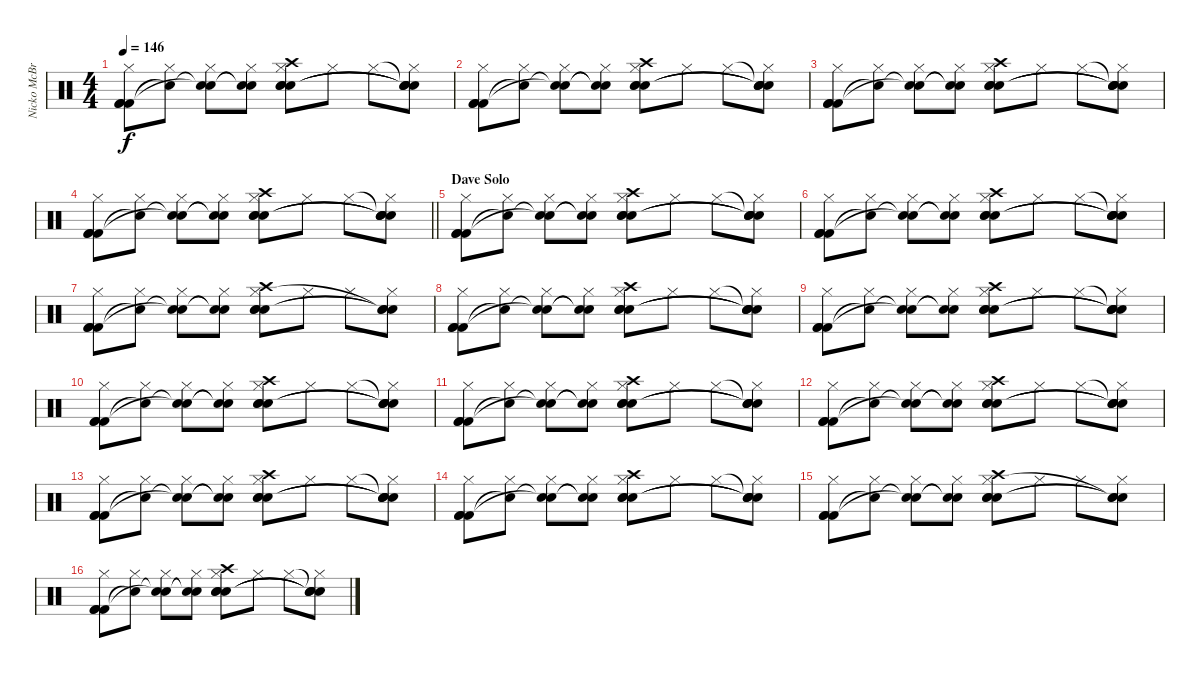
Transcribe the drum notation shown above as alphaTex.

\track ("Nicko McBrain" "Nicko McBr") {instrument percussion}
\staff {score}
\articulation defaults
\ts (4 4)
\tempo 146
\clef neutral
\ks c
("Hi-Hat (closed)" "Kick (hit) 2" "Kick (hit) 2" "Kick (hit) 2").8{dy f} ("Hi-Hat (closed)" "Snare (hit)"{t}).8 ("Hi-Hat (closed)" "Snare (hit)"{t} "Snare (hit)"{t}).8 ("Hi-Hat (closed)" "Snare (hit)"{t} "Snare (hit)"{t}).8 ("Crash high (hit)" "Hi-Hat (closed)" "Snare (hit) 2" "Snare (hit) 2" "Snare (hit) 2").8 "Hi-Hat (closed)".8 "Hi-Hat (closed)".8 ("Snare (hit)"{t} "Hi-Hat (closed)" "Snare (hit)"{t} "Snare (hit)"{t} "Snare (hit)"{t}).8 |
("Hi-Hat (closed)" "Kick (hit) 2" "Kick (hit) 2" "Kick (hit) 2").8 ("Hi-Hat (closed)" "Snare (hit)"{t}).8 ("Hi-Hat (closed)" "Snare (hit)"{t} "Snare (hit)"{t}).8 ("Hi-Hat (closed)" "Snare (hit)"{t} "Snare (hit)"{t}).8 ("Crash high (hit)" "Hi-Hat (closed)" "Snare (hit) 2" "Snare (hit) 2" "Snare (hit) 2").8 "Hi-Hat (closed)".8 "Hi-Hat (closed)".8 ("Snare (hit)"{t} "Hi-Hat (closed)" "Snare (hit)"{t} "Snare (hit)"{t} "Snare (hit)"{t}).8 |
("Hi-Hat (closed)" "Kick (hit) 2" "Kick (hit) 2" "Kick (hit) 2").8 ("Hi-Hat (closed)" "Snare (hit)"{t}).8 ("Hi-Hat (closed)" "Snare (hit)"{t} "Snare (hit)"{t}).8 ("Hi-Hat (closed)" "Snare (hit)"{t} "Snare (hit)"{t}).8 ("Crash high (hit)" "Hi-Hat (closed)" "Snare (hit) 2" "Snare (hit) 2" "Snare (hit) 2").8 "Hi-Hat (closed)".8 "Hi-Hat (closed)".8 ("Snare (hit)"{t} "Hi-Hat (closed)" "Snare (hit)"{t} "Snare (hit)"{t} "Snare (hit)"{t}).8 |
\barLineRight lightlight
("Hi-Hat (closed)" "Kick (hit) 2" "Kick (hit) 2" "Kick (hit) 2").8 ("Hi-Hat (closed)" "Snare (hit)"{t}).8 ("Hi-Hat (closed)" "Snare (hit)"{t} "Snare (hit)"{t}).8 ("Hi-Hat (closed)" "Snare (hit)"{t} "Snare (hit)"{t}).8 ("Crash high (hit)" "Hi-Hat (closed)" "Snare (hit) 2" "Snare (hit) 2" "Snare (hit) 2").8 "Hi-Hat (closed)".8 "Hi-Hat (closed)".8 ("Snare (hit)"{t} "Hi-Hat (closed)" "Snare (hit)"{t} "Snare (hit)"{t} "Snare (hit)"{t}).8 |
\section ("" "Dave Solo")
("Hi-Hat (closed)" "Kick (hit) 2" "Kick (hit) 2" "Kick (hit) 2").8 ("Hi-Hat (closed)" "Snare (hit)"{t}).8 ("Hi-Hat (closed)" "Snare (hit)"{t} "Snare (hit)"{t}).8 ("Hi-Hat (closed)" "Snare (hit)"{t} "Snare (hit)"{t}).8 ("Crash high (hit)" "Hi-Hat (closed)" "Snare (hit) 2" "Snare (hit) 2" "Snare (hit) 2").8 "Hi-Hat (closed)".8 "Hi-Hat (closed)".8 ("Snare (hit)"{t} "Hi-Hat (closed)" "Snare (hit)"{t} "Snare (hit)"{t} "Snare (hit)"{t}).8 |
("Hi-Hat (closed)" "Kick (hit) 2" "Kick (hit) 2" "Kick (hit) 2").8 ("Hi-Hat (closed)" "Snare (hit)"{t}).8 ("Hi-Hat (closed)" "Snare (hit)"{t} "Snare (hit)"{t}).8 ("Hi-Hat (closed)" "Snare (hit)"{t} "Snare (hit)"{t}).8 ("Crash high (hit)" "Hi-Hat (closed)" "Snare (hit) 2" "Snare (hit) 2" "Snare (hit) 2").8 "Hi-Hat (closed)".8 "Hi-Hat (closed)".8 ("Snare (hit)"{t} "Hi-Hat (closed)" "Snare (hit)"{t} "Snare (hit)"{t} "Snare (hit)"{t}).8 |
("Hi-Hat (closed)" "Kick (hit) 2" "Kick (hit) 2" "Kick (hit) 2").8 ("Hi-Hat (closed)" "Snare (hit)"{t}).8 ("Hi-Hat (closed)" "Snare (hit)"{t} "Snare (hit)"{t}).8 ("Hi-Hat (closed)" "Snare (hit)"{t} "Snare (hit)"{t}).8 ("Crash high (hit)" "Hi-Hat (closed)" "Snare (hit) 2" "Snare (hit) 2" "Snare (hit) 2").8 "Hi-Hat (closed)".8 "Hi-Hat (closed)".8 ("Hi-Hat (closed)" "Snare (hit)"{t} "Snare (hit)"{t} "Snare (hit)"{t}).8 |
("Hi-Hat (closed)" "Kick (hit) 2" "Kick (hit) 2" "Kick (hit) 2").8 ("Hi-Hat (closed)" "Snare (hit)"{t}).8 ("Hi-Hat (closed)" "Snare (hit)"{t} "Snare (hit)"{t}).8 ("Hi-Hat (closed)" "Snare (hit)"{t} "Snare (hit)"{t}).8 ("Crash high (hit)" "Hi-Hat (closed)" "Snare (hit) 2" "Snare (hit) 2" "Snare (hit) 2").8 "Hi-Hat (closed)".8 "Hi-Hat (closed)".8 ("Snare (hit)"{t} "Hi-Hat (closed)" "Snare (hit)"{t} "Snare (hit)"{t} "Snare (hit)"{t}).8 |
("Hi-Hat (closed)" "Kick (hit) 2" "Kick (hit) 2" "Kick (hit) 2").8 ("Hi-Hat (closed)" "Snare (hit)"{t}).8 ("Hi-Hat (closed)" "Snare (hit)"{t} "Snare (hit)"{t}).8 ("Hi-Hat (closed)" "Snare (hit)"{t} "Snare (hit)"{t}).8 ("Crash high (hit)" "Hi-Hat (closed)" "Snare (hit) 2" "Snare (hit) 2" "Snare (hit) 2").8 "Hi-Hat (closed)".8 "Hi-Hat (closed)".8 ("Snare (hit)"{t} "Hi-Hat (closed)" "Snare (hit)"{t} "Snare (hit)"{t} "Snare (hit)"{t}).8 |
("Hi-Hat (closed)" "Kick (hit) 2" "Kick (hit) 2" "Kick (hit) 2").8 ("Hi-Hat (closed)" "Snare (hit)"{t}).8 ("Hi-Hat (closed)" "Snare (hit)"{t} "Snare (hit)"{t}).8 ("Hi-Hat (closed)" "Snare (hit)"{t} "Snare (hit)"{t}).8 ("Crash high (hit)" "Hi-Hat (closed)" "Snare (hit) 2" "Snare (hit) 2" "Snare (hit) 2").8 "Hi-Hat (closed)".8 "Hi-Hat (closed)".8 ("Snare (hit)"{t} "Hi-Hat (closed)" "Snare (hit)"{t} "Snare (hit)"{t} "Snare (hit)"{t}).8 |
("Hi-Hat (closed)" "Kick (hit) 2" "Kick (hit) 2" "Kick (hit) 2").8 ("Hi-Hat (closed)" "Snare (hit)"{t}).8 ("Hi-Hat (closed)" "Snare (hit)"{t} "Snare (hit)"{t}).8 ("Hi-Hat (closed)" "Snare (hit)"{t} "Snare (hit)"{t}).8 ("Crash high (hit)" "Hi-Hat (closed)" "Snare (hit) 2" "Snare (hit) 2" "Snare (hit) 2").8 "Hi-Hat (closed)".8 "Hi-Hat (closed)".8 ("Snare (hit)"{t} "Hi-Hat (closed)" "Snare (hit)"{t} "Snare (hit)"{t} "Snare (hit)"{t}).8 |
("Hi-Hat (closed)" "Kick (hit) 2" "Kick (hit) 2" "Kick (hit) 2").8 ("Hi-Hat (closed)" "Snare (hit)"{t}).8 ("Hi-Hat (closed)" "Snare (hit)"{t} "Snare (hit)"{t}).8 ("Hi-Hat (closed)" "Snare (hit)"{t} "Snare (hit)"{t}).8 ("Crash high (hit)" "Hi-Hat (closed)" "Snare (hit) 2" "Snare (hit) 2" "Snare (hit) 2").8 "Hi-Hat (closed)".8 "Hi-Hat (closed)".8 ("Snare (hit)"{t} "Hi-Hat (closed)" "Snare (hit)"{t} "Snare (hit)"{t} "Snare (hit)"{t}).8 |
("Hi-Hat (closed)" "Kick (hit) 2" "Kick (hit) 2" "Kick (hit) 2").8 ("Hi-Hat (closed)" "Snare (hit)"{t}).8 ("Hi-Hat (closed)" "Snare (hit)"{t} "Snare (hit)"{t}).8 ("Hi-Hat (closed)" "Snare (hit)"{t} "Snare (hit)"{t}).8 ("Crash high (hit)" "Hi-Hat (closed)" "Snare (hit) 2" "Snare (hit) 2" "Snare (hit) 2").8 "Hi-Hat (closed)".8 "Hi-Hat (closed)".8 ("Snare (hit)"{t} "Hi-Hat (closed)" "Snare (hit)"{t} "Snare (hit)"{t} "Snare (hit)"{t}).8 |
("Hi-Hat (closed)" "Kick (hit) 2" "Kick (hit) 2" "Kick (hit) 2").8 ("Hi-Hat (closed)" "Snare (hit)"{t}).8 ("Hi-Hat (closed)" "Snare (hit)"{t} "Snare (hit)"{t}).8 ("Hi-Hat (closed)" "Snare (hit)"{t} "Snare (hit)"{t}).8 ("Crash high (hit)" "Hi-Hat (closed)" "Snare (hit) 2" "Snare (hit) 2" "Snare (hit) 2").8 "Hi-Hat (closed)".8 "Hi-Hat (closed)".8 ("Snare (hit)"{t} "Hi-Hat (closed)" "Snare (hit)"{t} "Snare (hit)"{t} "Snare (hit)"{t}).8 |
("Hi-Hat (closed)" "Kick (hit) 2" "Kick (hit) 2" "Kick (hit) 2").8 ("Hi-Hat (closed)" "Snare (hit)"{t}).8 ("Hi-Hat (closed)" "Snare (hit)"{t} "Snare (hit)"{t}).8 ("Hi-Hat (closed)" "Snare (hit)"{t} "Snare (hit)"{t}).8 ("Crash high (hit)" "Hi-Hat (closed)" "Snare (hit) 2" "Snare (hit) 2" "Snare (hit) 2").8 "Hi-Hat (closed)".8 "Hi-Hat (closed)".8 ("Hi-Hat (closed)" "Snare (hit)"{t} "Snare (hit)"{t} "Snare (hit)"{t}).8 |
("Hi-Hat (closed)" "Kick (hit) 2" "Kick (hit) 2" "Kick (hit) 2").8 ("Hi-Hat (closed)" "Snare (hit)"{t}).8 ("Hi-Hat (closed)" "Snare (hit)"{t} "Snare (hit)"{t}).8 ("Hi-Hat (closed)" "Snare (hit)"{t} "Snare (hit)"{t}).8 ("Crash high (hit)" "Hi-Hat (closed)" "Snare (hit) 2" "Snare (hit) 2" "Snare (hit) 2").8 "Hi-Hat (closed)".8 "Hi-Hat (closed)".8 ("Snare (hit)"{t} "Hi-Hat (closed)" "Snare (hit)"{t} "Snare (hit)"{t} "Snare (hit)"{t}).8
